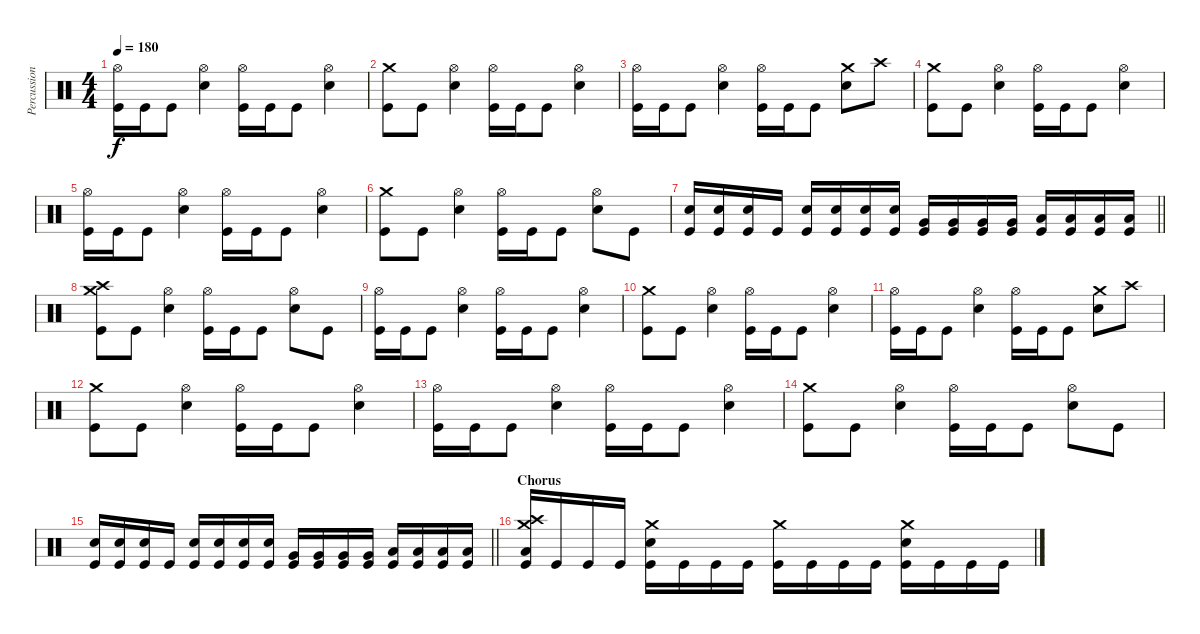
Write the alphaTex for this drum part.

\track ("Percussion" "Percussion") {instrument percussion}
\staff {score}
\articulation defaults
\ts (4 4)
\tempo 180
\clef neutral
\ks c
("Hi-Hat (open)" "Kick (hit)").16{dy f} "Kick (hit)".16 "Kick (hit)".8 ("Hi-Hat (open)" "Electric Snare (hit)").4 ("Hi-Hat (open)" "Kick (hit)").16 "Kick (hit)".16 "Kick (hit)".8 ("Hi-Hat (open)" "Electric Snare (hit)").4 |
("Crash medium (hit)" "Kick (hit)").8 "Kick (hit)".8 ("Hi-Hat (open)" "Electric Snare (hit)").4 ("Hi-Hat (open)" "Kick (hit)").16 "Kick (hit)".16 "Kick (hit)".8 ("Hi-Hat (open)" "Electric Snare (hit)").4 |
("Hi-Hat (open)" "Kick (hit)").16 "Kick (hit)".16 "Kick (hit)".8 ("Hi-Hat (open)" "Electric Snare (hit)").4 ("Hi-Hat (open)" "Kick (hit)").16 "Kick (hit)".16 "Kick (hit)".8 ("Crash medium (hit)" "Electric Snare (hit)").8 "Crash high (hit)".8 |
("Crash medium (hit)" "Kick (hit)").8 "Kick (hit)".8 ("Hi-Hat (open)" "Electric Snare (hit)").4 ("Hi-Hat (open)" "Kick (hit)").16 "Kick (hit)".16 "Kick (hit)".8 ("Hi-Hat (open)" "Electric Snare (hit)").4 |
("Hi-Hat (open)" "Kick (hit)").16 "Kick (hit)".16 "Kick (hit)".8 ("Hi-Hat (open)" "Electric Snare (hit)").4 ("Hi-Hat (open)" "Kick (hit)").16 "Kick (hit)".16 "Kick (hit)".8 ("Hi-Hat (open)" "Electric Snare (hit)").4 |
("Crash medium (hit)" "Kick (hit)").8 "Kick (hit)".8 ("Hi-Hat (open)" "Electric Snare (hit)").4 ("Hi-Hat (open)" "Kick (hit)").16 "Kick (hit)".16 "Kick (hit)".8 ("Hi-Hat (open)" "Electric Snare (hit)").8 "Kick (hit)".8 |
\barLineRight lightlight
("Electric Snare (hit)" "Kick (hit)").16 ("Electric Snare (hit)" "Kick (hit)").16 ("Electric Snare (hit)" "Kick (hit)").16 "Kick (hit)".16 ("Electric Snare (hit)" "Kick (hit)").16 ("Electric Snare (hit)" "Kick (hit)").16 ("Electric Snare (hit)" "Kick (hit)").16 ("Electric Snare (hit)" "Kick (hit)").16 ("Very Low Tom (hit)" "Kick (hit)").16 ("Very Low Tom (hit)" "Kick (hit)").16 ("Very Low Tom (hit)" "Kick (hit)").16 ("Very Low Tom (hit)" "Kick (hit)").16 ("Low Floor Tom (hit)" "Kick (hit)").16 ("Low Floor Tom (hit)" "Kick (hit)").16 ("Low Floor Tom (hit)" "Kick (hit)").16 ("Low Floor Tom (hit)" "Kick (hit)").16 |
("Crash high (hit)" "Crash medium (hit)" "Kick (hit)").8 "Kick (hit)".8 ("Hi-Hat (open)" "Electric Snare (hit)").4 ("Hi-Hat (open)" "Kick (hit)").16 "Kick (hit)".16 "Kick (hit)".8 ("Hi-Hat (open)" "Electric Snare (hit)").8 "Kick (hit)".8 |
("Hi-Hat (open)" "Kick (hit)").16 "Kick (hit)".16 "Kick (hit)".8 ("Hi-Hat (open)" "Electric Snare (hit)").4 ("Hi-Hat (open)" "Kick (hit)").16 "Kick (hit)".16 "Kick (hit)".8 ("Hi-Hat (open)" "Electric Snare (hit)").4 |
("Crash medium (hit)" "Kick (hit)").8 "Kick (hit)".8 ("Hi-Hat (open)" "Electric Snare (hit)").4 ("Hi-Hat (open)" "Kick (hit)").16 "Kick (hit)".16 "Kick (hit)".8 ("Hi-Hat (open)" "Electric Snare (hit)").4 |
("Hi-Hat (open)" "Kick (hit)").16 "Kick (hit)".16 "Kick (hit)".8 ("Hi-Hat (open)" "Electric Snare (hit)").4 ("Hi-Hat (open)" "Kick (hit)").16 "Kick (hit)".16 "Kick (hit)".8 ("Crash medium (hit)" "Electric Snare (hit)").8 "Crash high (hit)".8 |
("Crash medium (hit)" "Kick (hit)").8 "Kick (hit)".8 ("Hi-Hat (open)" "Electric Snare (hit)").4 ("Hi-Hat (open)" "Kick (hit)").16 "Kick (hit)".16 "Kick (hit)".8 ("Hi-Hat (open)" "Electric Snare (hit)").4 |
("Hi-Hat (open)" "Kick (hit)").16 "Kick (hit)".16 "Kick (hit)".8 ("Hi-Hat (open)" "Electric Snare (hit)").4 ("Hi-Hat (open)" "Kick (hit)").16 "Kick (hit)".16 "Kick (hit)".8 ("Hi-Hat (open)" "Electric Snare (hit)").4 |
("Crash medium (hit)" "Kick (hit)").8 "Kick (hit)".8 ("Hi-Hat (open)" "Electric Snare (hit)").4 ("Hi-Hat (open)" "Kick (hit)").16 "Kick (hit)".16 "Kick (hit)".8 ("Hi-Hat (open)" "Electric Snare (hit)").8 "Kick (hit)".8 |
\barLineRight lightlight
("Electric Snare (hit)" "Kick (hit)").16 ("Electric Snare (hit)" "Kick (hit)").16 ("Electric Snare (hit)" "Kick (hit)").16 "Kick (hit)".16 ("Electric Snare (hit)" "Kick (hit)").16 ("Electric Snare (hit)" "Kick (hit)").16 ("Electric Snare (hit)" "Kick (hit)").16 ("Electric Snare (hit)" "Kick (hit)").16 ("Very Low Tom (hit)" "Kick (hit)").16 ("Very Low Tom (hit)" "Kick (hit)").16 ("Very Low Tom (hit)" "Kick (hit)").16 ("Very Low Tom (hit)" "Kick (hit)").16 ("Low Floor Tom (hit)" "Kick (hit)").16 ("Low Floor Tom (hit)" "Kick (hit)").16 ("Low Floor Tom (hit)" "Kick (hit)").16 ("Low Floor Tom (hit)" "Kick (hit)").16 |
\section ("" "Chorus")
("Crash medium (hit)" "Crash high (hit)" "Low Floor Tom (hit)" "Kick (hit)").16 "Kick (hit)".16 "Kick (hit)".16 "Kick (hit)".16 ("Crash medium (hit)" "Electric Snare (hit)" "Kick (hit)").16 "Kick (hit)".16 "Kick (hit)".16 "Kick (hit)".16 ("Crash medium (hit)" "Kick (hit)").16 "Kick (hit)".16 "Kick (hit)".16 "Kick (hit)".16 ("Crash medium (hit)" "Electric Snare (hit)" "Kick (hit)").16 "Kick (hit)".16 "Kick (hit)".16 "Kick (hit)".16
